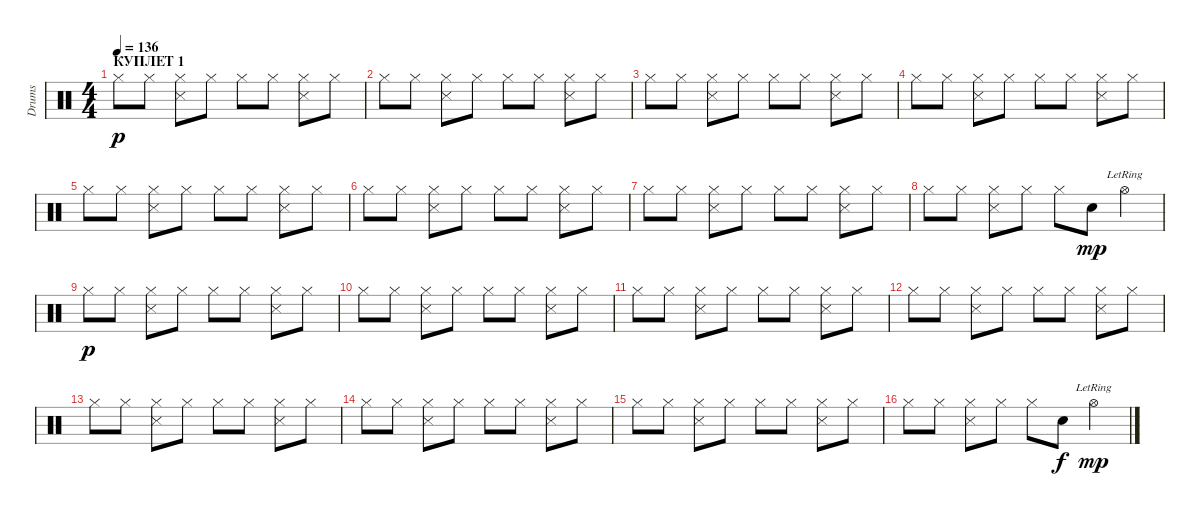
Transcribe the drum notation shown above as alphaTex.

\track ("Drums" "Drums") {instrument percussion}
\staff {score}
\articulation defaults
\ts (4 4)
\section ("" "КУПЛЕТ 1")
\tempo 136
\clef neutral
\ks c "Hi-Hat (closed)".8{dy p} "Hi-Hat (closed)".8
("Hi-Hat (closed)" "Snare (side stick) 3").8 "Hi-Hat (closed)".8 "Hi-Hat (closed)".8 "Hi-Hat (closed)".8 ("Hi-Hat (closed)" "Snare (side stick) 3").8 "Hi-Hat (closed)".8 |
"Hi-Hat (closed)".8 "Hi-Hat (closed)".8 ("Hi-Hat (closed)" "Snare (side stick) 3").8 "Hi-Hat (closed)".8 "Hi-Hat (closed)".8 "Hi-Hat (closed)".8 ("Hi-Hat (closed)" "Snare (side stick) 3").8 "Hi-Hat (closed)".8 |
"Hi-Hat (closed)".8 "Hi-Hat (closed)".8 ("Hi-Hat (closed)" "Snare (side stick) 3").8 "Hi-Hat (closed)".8 "Hi-Hat (closed)".8 "Hi-Hat (closed)".8 ("Hi-Hat (closed)" "Snare (side stick) 3").8 "Hi-Hat (closed)".8 |
"Hi-Hat (closed)".8 "Hi-Hat (closed)".8 ("Hi-Hat (closed)" "Snare (side stick) 3").8 "Hi-Hat (closed)".8 "Hi-Hat (closed)".8 "Hi-Hat (closed)".8 ("Hi-Hat (closed)" "Snare (side stick) 3").8 "Hi-Hat (closed)".8 |
"Hi-Hat (closed)".8 "Hi-Hat (closed)".8 ("Hi-Hat (closed)" "Snare (side stick) 3").8 "Hi-Hat (closed)".8 "Hi-Hat (closed)".8 "Hi-Hat (closed)".8 ("Hi-Hat (closed)" "Snare (side stick) 3").8 "Hi-Hat (closed)".8 |
"Hi-Hat (closed)".8 "Hi-Hat (closed)".8 ("Hi-Hat (closed)" "Snare (side stick) 3").8 "Hi-Hat (closed)".8 "Hi-Hat (closed)".8 "Hi-Hat (closed)".8 ("Hi-Hat (closed)" "Snare (side stick) 3").8 "Hi-Hat (closed)".8 |
"Hi-Hat (closed)".8 "Hi-Hat (closed)".8 ("Hi-Hat (closed)" "Snare (side stick) 3").8 "Hi-Hat (closed)".8 "Hi-Hat (closed)".8 "Hi-Hat (closed)".8 ("Hi-Hat (closed)" "Snare (side stick) 3").8 "Hi-Hat (closed)".8 |
"Hi-Hat (closed)".8 "Hi-Hat (closed)".8 ("Hi-Hat (closed)" "Snare (side stick) 3").8 "Hi-Hat (closed)".8 "Hi-Hat (closed)".8 "Electric Snare (hit)".8{dy mp} "Hi-Hat (open)"{lr}.4 |
"Hi-Hat (closed)".8{dy p} "Hi-Hat (closed)".8 ("Hi-Hat (closed)" "Snare (side stick) 3").8 "Hi-Hat (closed)".8 "Hi-Hat (closed)".8 "Hi-Hat (closed)".8 ("Hi-Hat (closed)" "Snare (side stick) 3").8 "Hi-Hat (closed)".8 |
"Hi-Hat (closed)".8 "Hi-Hat (closed)".8 ("Hi-Hat (closed)" "Snare (side stick) 3").8 "Hi-Hat (closed)".8 "Hi-Hat (closed)".8 "Hi-Hat (closed)".8 ("Hi-Hat (closed)" "Snare (side stick) 3").8 "Hi-Hat (closed)".8 |
"Hi-Hat (closed)".8 "Hi-Hat (closed)".8 ("Hi-Hat (closed)" "Snare (side stick) 3").8 "Hi-Hat (closed)".8 "Hi-Hat (closed)".8 "Hi-Hat (closed)".8 ("Hi-Hat (closed)" "Snare (side stick) 3").8 "Hi-Hat (closed)".8 |
"Hi-Hat (closed)".8 "Hi-Hat (closed)".8 ("Hi-Hat (closed)" "Snare (side stick) 3").8 "Hi-Hat (closed)".8 "Hi-Hat (closed)".8 "Hi-Hat (closed)".8 ("Hi-Hat (closed)" "Snare (side stick) 3").8 "Hi-Hat (closed)".8 |
"Hi-Hat (closed)".8 "Hi-Hat (closed)".8 ("Hi-Hat (closed)" "Snare (side stick) 3").8 "Hi-Hat (closed)".8 "Hi-Hat (closed)".8 "Hi-Hat (closed)".8 ("Hi-Hat (closed)" "Snare (side stick) 3").8 "Hi-Hat (closed)".8 |
"Hi-Hat (closed)".8 "Hi-Hat (closed)".8 ("Hi-Hat (closed)" "Snare (side stick) 3").8 "Hi-Hat (closed)".8 "Hi-Hat (closed)".8 "Hi-Hat (closed)".8 ("Hi-Hat (closed)" "Snare (side stick) 3").8 "Hi-Hat (closed)".8 |
"Hi-Hat (closed)".8 "Hi-Hat (closed)".8 ("Hi-Hat (closed)" "Snare (side stick) 3").8 "Hi-Hat (closed)".8 "Hi-Hat (closed)".8 "Hi-Hat (closed)".8 ("Hi-Hat (closed)" "Snare (side stick) 3").8 "Hi-Hat (closed)".8 |
"Hi-Hat (closed)".8 "Hi-Hat (closed)".8 ("Hi-Hat (closed)" "Snare (side stick) 3").8 "Hi-Hat (closed)".8 "Hi-Hat (closed)".8 "Electric Snare (hit)".8{dy f} "Hi-Hat (open)"{lr}.4{dy mp}
